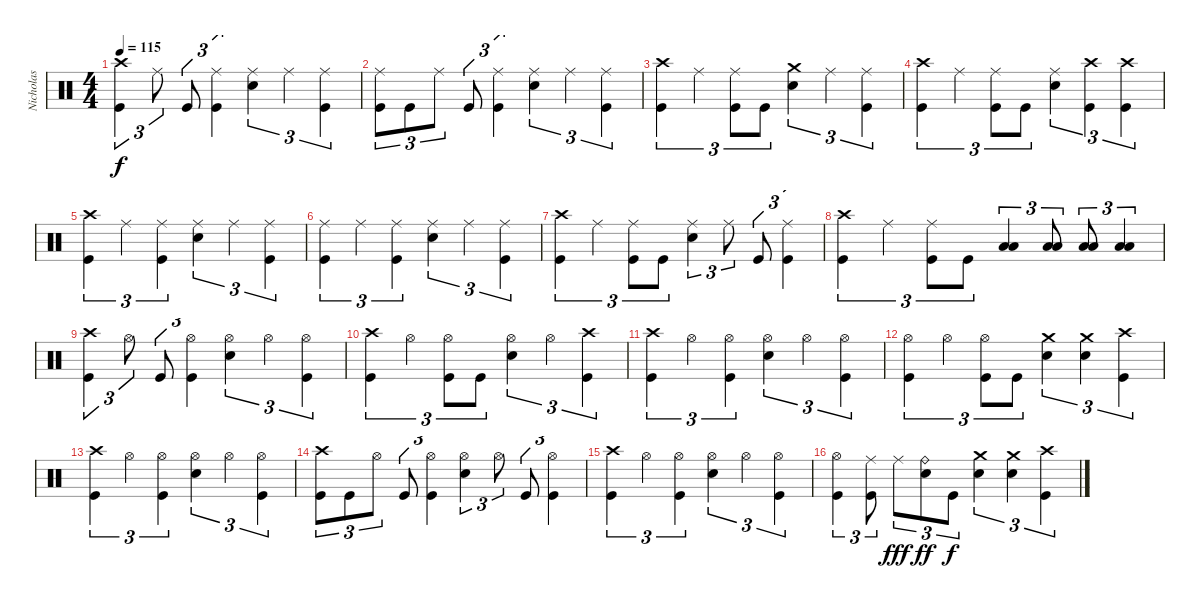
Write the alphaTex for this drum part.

\track ("Nicholas" "Nicholas") {instrument percussion}
\staff {score}
\articulation defaults
\ts (4 4)
\tempo 115
\clef neutral
\ks c
("Crash high (hit)" "Kick (hit)").4{tu (3 2) dy f} "Ride (middle)".8{tu (3 2)} "Kick (hit)".8{tu (3 2)} ("Ride (middle)" "Kick (hit)").4{tu (3 2)} ("Ride (middle)" "Electric Snare (hit)").4{tu (3 2)} "Ride (middle)".4{tu (3 2)} ("Ride (middle)" "Kick (hit)").4{tu (3 2)} |
("Ride (middle)" "Kick (hit)").8{tu (3 2)} "Kick (hit)".8{tu (3 2)} "Ride (middle)".8{tu (3 2)} "Kick (hit)".8{tu (3 2)} ("Ride (middle)" "Kick (hit)").4{tu (3 2)} ("Ride (middle)" "Electric Snare (hit)").4{tu (3 2)} "Ride (middle)".4{tu (3 2)} ("Ride (middle)" "Kick (hit)").4{tu (3 2)} |
("Crash high (hit)" "Kick (hit)").4{tu (3 2)} "Ride (middle)".4{tu (3 2)} ("Ride (middle)" "Kick (hit)").8{tu (3 2)} "Kick (hit)".8{tu (3 2)} ("Crash medium (hit)" "Electric Snare (hit)").4{tu (3 2)} "Ride (middle)".4{tu (3 2)} ("Ride (middle)" "Kick (hit)").4{tu (3 2)} |
("Crash high (hit)" "Kick (hit)").4{tu (3 2)} "Ride (middle)".4{tu (3 2)} ("Ride (middle)" "Kick (hit)").8{tu (3 2)} "Kick (hit)".8{tu (3 2)} ("Ride (middle)" "Electric Snare (hit)").4{tu (3 2)} ("Crash high (hit)" "Kick (hit)").4{tu (3 2)} ("Crash high (hit)" "Kick (hit)").4{tu (3 2)} |
("Crash high (hit)" "Kick (hit)").4{tu (3 2)} "Ride (middle)".4{tu (3 2)} ("Ride (middle)" "Kick (hit)").4{tu (3 2)} ("Ride (middle)" "Electric Snare (hit)").4{tu (3 2)} "Ride (middle)".4{tu (3 2)} ("Ride (middle)" "Kick (hit)").4{tu (3 2)} |
("Ride (middle)" "Kick (hit)").4{tu (3 2)} "Ride (middle)".4{tu (3 2)} ("Ride (middle)" "Kick (hit)").4{tu (3 2)} ("Ride (middle)" "Electric Snare (hit)").4{tu (3 2)} "Ride (middle)".4{tu (3 2)} ("Ride (middle)" "Kick (hit)").4{tu (3 2)} |
("Crash high (hit)" "Kick (hit)").4{tu (3 2)} "Ride (middle)".4{tu (3 2)} ("Ride (middle)" "Kick (hit)").8{tu (3 2)} "Kick (hit)".8{tu (3 2)} ("Ride (middle)" "Electric Snare (hit)").4{tu (3 2)} "Ride (middle)".8{tu (3 2)} "Kick (hit)".8{tu (3 2)} ("Ride (middle)" "Kick (hit)").4{tu (3 2)} |
("Crash high (hit)" "Kick (hit)").4{tu (3 2)} "Ride (middle)".4{tu (3 2)} ("Ride (middle)" "Kick (hit)").8{tu (3 2)} "Kick (hit)".8{tu (3 2)} ("Low Tom (hit)" "Low Floor Tom (hit)").4{tu (3 2) bd 60} ("Low Tom (hit)" "Low Floor Tom (hit)").8{tu (3 2) bd 60} ("Low Tom (hit)" "Low Floor Tom (hit)").8{tu (3 2) bd 60} ("Low Tom (hit)" "Low Floor Tom (hit)").4{tu (3 2) bd 60} |
("Crash high (hit)" "Kick (hit)").4{tu (3 2)} "Hi-Hat (open)".8{tu (3 2)} "Kick (hit)".8{tu (3 2)} ("Hi-Hat (open)" "Kick (hit)").4{tu (3 2)} ("Hi-Hat (open)" "Electric Snare (hit)").4{tu (3 2)} "Hi-Hat (open)".4{tu (3 2)} ("Hi-Hat (open)" "Kick (hit)").4{tu (3 2)} |
("Crash high (hit)" "Kick (hit)").4{tu (3 2)} "Hi-Hat (open)".4{tu (3 2)} ("Hi-Hat (open)" "Kick (hit)").8{tu (3 2)} "Kick (hit)".8{tu (3 2)} ("Hi-Hat (open)" "Electric Snare (hit)").4{tu (3 2)} "Hi-Hat (open)".4{tu (3 2)} ("Crash high (hit)" "Kick (hit)").4{tu (3 2)} |
("Crash high (hit)" "Kick (hit)").4{tu (3 2)} "Hi-Hat (open)".4{tu (3 2)} ("Hi-Hat (open)" "Kick (hit)").4{tu (3 2)} ("Hi-Hat (open)" "Electric Snare (hit)").4{tu (3 2)} "Hi-Hat (open)".4{tu (3 2)} ("Hi-Hat (open)" "Kick (hit)").4{tu (3 2)} |
("Hi-Hat (open)" "Kick (hit)").4{tu (3 2)} "Hi-Hat (open)".4{tu (3 2)} ("Hi-Hat (open)" "Kick (hit)").8{tu (3 2)} "Kick (hit)".8{tu (3 2)} ("Crash medium (hit)" "Electric Snare (hit)").4{tu (3 2)} ("Crash medium (hit)" "Electric Snare (hit)").4{tu (3 2)} ("Crash high (hit)" "Kick (hit)").4{tu (3 2)} |
("Crash high (hit)" "Kick (hit)").4{tu (3 2)} "Hi-Hat (open)".4{tu (3 2)} ("Hi-Hat (open)" "Kick (hit)").4{tu (3 2)} ("Hi-Hat (open)" "Electric Snare (hit)").4{tu (3 2)} "Hi-Hat (open)".4{tu (3 2)} ("Hi-Hat (open)" "Kick (hit)").4{tu (3 2)} |
("Crash high (hit)" "Kick (hit)").8{tu (3 2)} "Kick (hit)".8{tu (3 2)} "Hi-Hat (open)".8{tu (3 2)} "Kick (hit)".8{tu (3 2)} ("Hi-Hat (open)" "Kick (hit)").4{tu (3 2)} ("Hi-Hat (open)" "Electric Snare (hit)").4{tu (3 2)} "Hi-Hat (open)".8{tu (3 2)} "Kick (hit)".8{tu (3 2)} ("Hi-Hat (open)" "Kick (hit)").4{tu (3 2)} |
("Crash high (hit)" "Kick (hit)").4{tu (3 2)} "Hi-Hat (open)".4{tu (3 2)} ("Hi-Hat (open)" "Kick (hit)").4{tu (3 2)} ("Hi-Hat (open)" "Electric Snare (hit)").4{tu (3 2)} "Hi-Hat (open)".4{tu (3 2)} ("Hi-Hat (open)" "Kick (hit)").4{tu (3 2)} |
("Hi-Hat (open)" "Kick (hit)").4{tu (3 2)} ("Ride (middle)" "Kick (hit)").8{tu (3 2)} "Ride (middle)".8{tu (3 2) dy fff} ("Ride (bell)" "Electric Snare (hit)").8{tu (3 2) dy ff} "Kick (hit)".8{tu (3 2) dy f} ("Crash medium (hit)" "Electric Snare (hit)").4{tu (3 2)} ("Crash medium (hit)" "Electric Snare (hit)").4{tu (3 2)} ("Crash high (hit)" "Kick (hit)").4{tu (3 2)}
